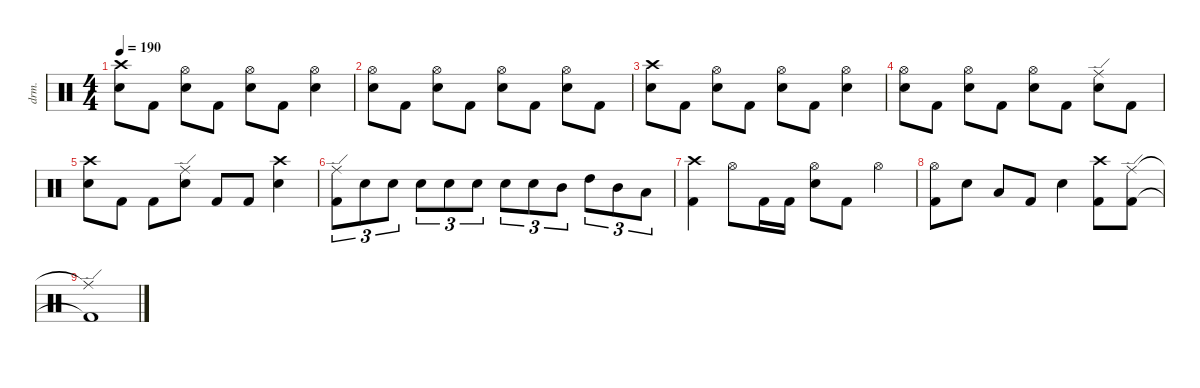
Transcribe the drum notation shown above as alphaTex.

\defaultSystemsLayout 4
\hideDynamics
\bracketExtendMode nobrackets
\track ("Drumkit" "drm.") {instrument percussion}
\staff {score}
\articulation defaults
\ts (4 4)
\tempo 190
\clef neutral
\ks c
("Snare (hit) 2" "Crash high (hit)").8{dy mf} "Kick (hit) 2".8 ("Snare (hit) 2" "Hi-Hat (open)").8 "Kick (hit) 2".8 ("Snare (hit) 2" "Hi-Hat (open)").8 "Kick (hit) 2".8 ("Snare (hit) 2" "Hi-Hat (open)").4 |
("Snare (hit) 2" "Hi-Hat (open)").8 "Kick (hit) 2".8 ("Snare (hit) 2" "Hi-Hat (open)").8 "Kick (hit) 2".8 ("Snare (hit) 2" "Hi-Hat (open)").8 "Kick (hit) 2".8 ("Snare (hit) 2" "Hi-Hat (open)").8 "Kick (hit) 2".8 |
("Snare (hit) 2" "Crash high (hit)").8 "Kick (hit) 2".8 ("Snare (hit) 2" "Hi-Hat (open)").8 "Kick (hit) 2".8 ("Snare (hit) 2" "Hi-Hat (open)").8 "Kick (hit) 2".8 ("Snare (hit) 2" "Hi-Hat (open)").4 |
("Snare (hit) 2" "Hi-Hat (open)").8 "Kick (hit) 2".8 ("Snare (hit) 2" "Hi-Hat (open)").8 "Kick (hit) 2".8 ("Snare (hit) 2" "Hi-Hat (open)").8 "Kick (hit) 2".8 ("Snare (hit) 2" "Ride (edge)").8 "Kick (hit) 2".8 |
("Snare (hit) 2" "Crash high (hit)").8 "Kick (hit) 2".8 "Kick (hit) 2".8 ("Snare (hit) 2" "Ride (edge)").8 "Kick (hit) 2".8 "Kick (hit) 2".8 ("Snare (hit) 2" "Crash high (hit)").4 |
("Kick (hit) 2" "Ride (edge)").8{tu (3 2)} "Snare (hit) 2".8{tu (3 2)} "Snare (hit) 2".8{tu (3 2)} "Snare (hit) 2".8{tu (3 2)} "Snare (hit) 2".8{tu (3 2)} "Snare (hit) 2".8{tu (3 2)} "Snare (hit) 2".8{tu (3 2)} "Snare (hit) 2".8{tu (3 2)} "Mid Tom (hit)".8{tu (3 2)} "High Tom (hit)".8{tu (3 2)} "Mid Tom (hit)".8{tu (3 2)} "Low Tom (hit)".8{tu (3 2)} |
("Kick (hit) 2" "Crash high (hit)").4 "Hi-Hat (open)".8 "Kick (hit) 2".16 "Kick (hit) 2".16 ("Snare (hit) 2" "Hi-Hat (open)").8 "Kick (hit) 2".8 "Hi-Hat (open)".4 |
("Kick (hit) 2" "Hi-Hat (open)").8 "Snare (hit) 2".8 "Low Tom (hit)".8 "Kick (hit) 2".8 "Snare (hit) 2".4 ("Kick (hit) 2" "Crash high (hit)").8 ("Kick (hit) 2" "Ride (edge)").8 |
("Kick (hit) 2"{t} "Ride (edge)"{t}).1
